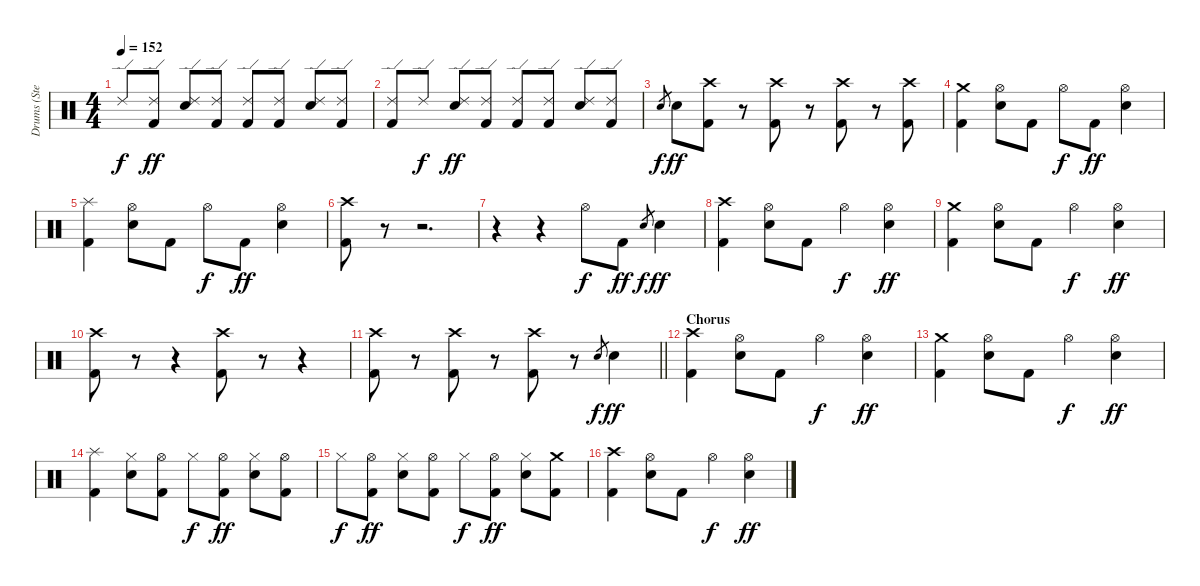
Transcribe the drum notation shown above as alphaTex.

\track ("Drums (Steven)" "Drums (Ste") {instrument percussion}
\staff {score}
\articulation defaults
\ts (4 4)
\tempo 152
\clef neutral
\ks c "Ride (edge) 2".8{dy f}
("Ride (edge) 2" "Kick (hit) 2").8{dy ff} ("Ride (edge) 2" "Snare (hit) 2").8 ("Ride (edge) 2" "Kick (hit) 2").8 ("Ride (edge) 2" "Kick (hit) 2").8 ("Ride (edge) 2" "Kick (hit) 2").8 ("Ride (edge) 2" "Snare (hit) 2").8 ("Ride (edge) 2" "Kick (hit) 2").8 |
("Ride (edge) 2" "Kick (hit) 2").8 "Ride (edge) 2".8{dy f} ("Ride (edge) 2" "Snare (hit) 2").8{dy ff} ("Ride (edge) 2" "Kick (hit) 2").8 ("Ride (edge) 2" "Kick (hit) 2").8 ("Ride (edge) 2" "Kick (hit) 2").8 ("Ride (edge) 2" "Snare (hit) 2").8 ("Ride (edge) 2" "Kick (hit) 2").8 |
"Snare (hit) 2".8{gr dy f} "Snare (hit) 2".8{dy ff} ("Crash high (hit)" "Kick (hit) 2").8 r.8{volume 0} ("Crash high (hit)" "Kick (hit) 2").8{volume 16} r.8{volume 0} ("Crash high (hit)" "Kick (hit) 2").8{volume 16} r.8{volume 0} ("Crash high (hit)" "Kick (hit) 2").8{volume 16} |
("Crash medium (hit)" "Kick (hit) 2").4 ("Hi-Hat (open)" "Snare (hit) 2").8 "Kick (hit) 2".8 "Hi-Hat (open)".8{dy f} "Kick (hit) 2".8{dy ff} ("Hi-Hat (open)" "Snare (hit) 2").4 |
("Splash (hit)" "Kick (hit) 2").4 ("Hi-Hat (open)" "Snare (hit) 2").8 "Kick (hit) 2".8 "Hi-Hat (open)".8{dy f} "Kick (hit) 2".8{dy ff} ("Hi-Hat (open)" "Snare (hit) 2").4 |
("Crash high (hit)" "Kick (hit) 2").8 r.8{volume 0} r.2{d} |
r.4 r.4 "Hi-Hat (open)".8{dy f volume 16} "Kick (hit) 2".8{dy ff} "Snare (hit) 2".8{gr dy f} "Snare (hit) 2".4{dy ff} |
("Crash high (hit)" "Kick (hit) 2").4 ("Hi-Hat (open)" "Snare (hit) 2").8 "Kick (hit) 2".8 "Hi-Hat (open)".4{dy f} ("Hi-Hat (open)" "Snare (hit) 2").4{dy ff} |
("Crash medium (hit)" "Kick (hit) 2").4 ("Hi-Hat (open)" "Snare (hit) 2").8 "Kick (hit) 2".8 "Hi-Hat (open)".4{dy f} ("Hi-Hat (open)" "Snare (hit) 2").4{dy ff} |
("Crash high (hit)" "Kick (hit) 2").8 r.8{volume 0} r.4 ("Crash high (hit)" "Kick (hit) 2").8{volume 16} r.8{volume 0} r.4 |
\barLineRight lightlight
("Crash high (hit)" "Kick (hit) 2").8{volume 16} r.8{volume 0} ("Crash high (hit)" "Kick (hit) 2").8{volume 16} r.8{volume 0} ("Crash high (hit)" "Kick (hit) 2").8{volume 16} r.8 "Snare (hit) 2".8{gr dy f} "Snare (hit) 2".4{dy ff} |
\section ("" "Chorus")
("Crash high (hit)" "Kick (hit) 2").4 ("Hi-Hat (open)" "Snare (hit) 2").8 "Kick (hit) 2".8 "Hi-Hat (open)".4{dy f} ("Hi-Hat (open)" "Snare (hit) 2").4{dy ff} |
("Crash medium (hit)" "Kick (hit) 2").4 ("Hi-Hat (open)" "Snare (hit) 2").8 "Kick (hit) 2".8 "Hi-Hat (open)".4{dy f} ("Hi-Hat (open)" "Snare (hit) 2").4{dy ff} |
("Splash (hit)" "Kick (hit) 2").4 ("Hi-Hat (closed)" "Snare (hit) 2").8 ("Hi-Hat (open)" "Kick (hit) 2").8 "Hi-Hat (closed)".8{dy f} ("Hi-Hat (open)" "Kick (hit) 2").8{dy ff} ("Hi-Hat (closed)" "Snare (hit) 2").8 ("Hi-Hat (open)" "Kick (hit) 2").8 |
"Hi-Hat (closed)".8{dy f} ("Hi-Hat (open)" "Kick (hit) 2").8{dy ff} ("Hi-Hat (closed)" "Snare (hit) 2").8 ("Hi-Hat (open)" "Kick (hit) 2").8 "Hi-Hat (closed)".8{dy f} ("Hi-Hat (open)" "Kick (hit) 2").8{dy ff} ("Hi-Hat (closed)" "Snare (hit) 2").8 ("Crash medium (hit)" "Kick (hit) 2").8 |
("Crash high (hit)" "Kick (hit) 2").4 ("Hi-Hat (open)" "Snare (hit) 2").8 "Kick (hit) 2".8 "Hi-Hat (open)".4{dy f} ("Hi-Hat (open)" "Snare (hit) 2").4{dy ff}
